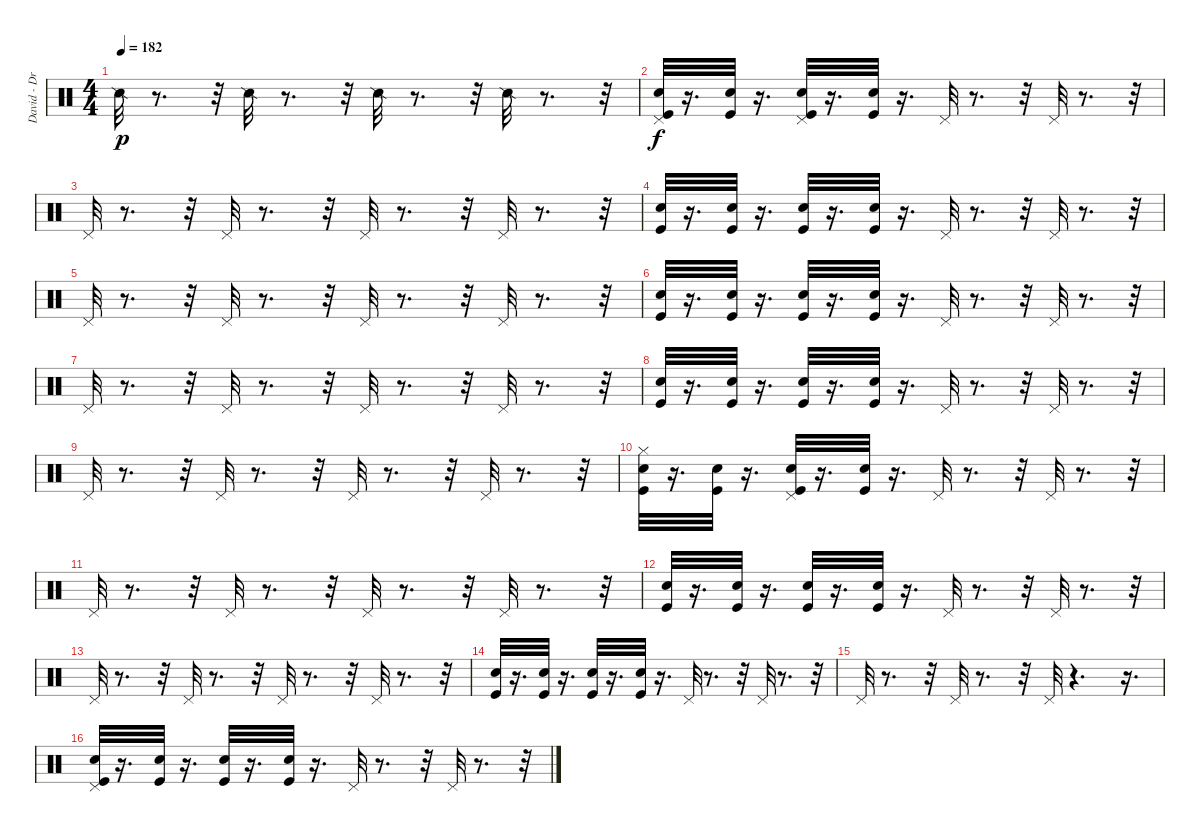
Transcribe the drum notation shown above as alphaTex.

\track ("David - Drums" "David - Dr") {instrument percussion}
\staff {score}
\articulation defaults
\ts (4 4)
\tempo 182
\clef neutral
\ks c "Snare (side stick) 2".32{dy p}
r.8{d} r.32 "Snare (side stick) 2".32 r.8{d} r.32 "Snare (side stick) 2".32 r.8{d} r.32 "Snare (side stick) 2".32 r.8{d} r.32 |
("Pedal Hi-Hat (hit)" "Snare (hit) 2" "Kick (hit)").32{dy f} r.16{d} ("Kick (hit)" "Snare (hit) 2").32 r.16{d} ("Pedal Hi-Hat (hit)" "Snare (hit) 2" "Kick (hit)").32 r.16{d} ("Kick (hit)" "Snare (hit) 2").32 r.16{d} "Pedal Hi-Hat (hit)".32 r.8{d} r.32 "Pedal Hi-Hat (hit)".32 r.8{d} r.32 |
"Pedal Hi-Hat (hit)".32 r.8{d} r.32 "Pedal Hi-Hat (hit)".32 r.8{d} r.32 "Pedal Hi-Hat (hit)".32 r.8{d} r.32 "Pedal Hi-Hat (hit)".32 r.8{d} r.32 |
("Kick (hit)" "Snare (hit) 2").32 r.16{d} ("Kick (hit)" "Snare (hit) 2").32 r.16{d} ("Kick (hit)" "Snare (hit) 2").32 r.16{d} ("Kick (hit)" "Snare (hit) 2").32 r.16{d} "Pedal Hi-Hat (hit)".32 r.8{d} r.32 "Pedal Hi-Hat (hit)".32 r.8{d} r.32 |
"Pedal Hi-Hat (hit)".32 r.8{d} r.32 "Pedal Hi-Hat (hit)".32 r.8{d} r.32 "Pedal Hi-Hat (hit)".32 r.8{d} r.32 "Pedal Hi-Hat (hit)".32 r.8{d} r.32 |
("Kick (hit)" "Snare (hit) 2").32 r.16{d} ("Snare (hit) 2" "Kick (hit)").32 r.16{d} ("Kick (hit)" "Snare (hit) 2").32 r.16{d} ("Snare (hit) 2" "Kick (hit)").32 r.16{d} "Pedal Hi-Hat (hit)".32 r.8{d} r.32 "Pedal Hi-Hat (hit)".32 r.8{d} r.32 |
"Pedal Hi-Hat (hit)".32 r.8{d} r.32 "Pedal Hi-Hat (hit)".32 r.8{d} r.32 "Pedal Hi-Hat (hit)".32 r.8{d} r.32 "Pedal Hi-Hat (hit)".32 r.8{d} r.32 |
("Kick (hit)" "Snare (hit) 2").32 r.16{d} ("Kick (hit)" "Snare (hit) 2").32 r.16{d} ("Snare (hit) 2" "Kick (hit)").32 r.16{d} ("Snare (hit) 2" "Kick (hit)").32 r.16{d} "Pedal Hi-Hat (hit)".32 r.8{d} r.32 "Pedal Hi-Hat (hit)".32 r.8{d} r.32 |
"Pedal Hi-Hat (hit)".32 r.8{d} r.32 "Pedal Hi-Hat (hit)".32 r.8{d} r.32 "Pedal Hi-Hat (hit)".32 r.8{d} r.32 "Pedal Hi-Hat (hit)".32 r.8{d} r.32 |
("Hi-Hat (closed)" "Snare (hit) 2" "Kick (hit)").32 r.16{d} ("Kick (hit)" "Snare (hit) 2").32 r.16{d} ("Pedal Hi-Hat (hit)" "Snare (hit) 2" "Kick (hit)").32 r.16{d} ("Kick (hit)" "Snare (hit) 2").32 r.16{d} "Pedal Hi-Hat (hit)".32 r.8{d} r.32 "Pedal Hi-Hat (hit)".32 r.8{d} r.32 |
"Pedal Hi-Hat (hit)".32 r.8{d} r.32 "Pedal Hi-Hat (hit)".32 r.8{d} r.32 "Pedal Hi-Hat (hit)".32 r.8{d} r.32 "Pedal Hi-Hat (hit)".32 r.8{d} r.32 |
("Kick (hit)" "Snare (hit) 2").32 r.16{d} ("Kick (hit)" "Snare (hit) 2").32 r.16{d} ("Kick (hit)" "Snare (hit) 2").32 r.16{d} ("Kick (hit)" "Snare (hit) 2").32 r.16{d} "Pedal Hi-Hat (hit)".32 r.8{d} r.32 "Pedal Hi-Hat (hit)".32 r.8{d} r.32 |
"Pedal Hi-Hat (hit)".32 r.8{d} r.32 "Pedal Hi-Hat (hit)".32 r.8{d} r.32 "Pedal Hi-Hat (hit)".32 r.8{d} r.32 "Pedal Hi-Hat (hit)".32 r.8{d} r.32 |
("Kick (hit)" "Snare (hit) 2").32 r.16{d} ("Snare (hit) 2" "Kick (hit)").32 r.16{d} ("Kick (hit)" "Snare (hit) 2").32 r.16{d} ("Snare (hit) 2" "Kick (hit)").32 r.16{d} "Pedal Hi-Hat (hit)".32 r.8{d} r.32 "Pedal Hi-Hat (hit)".32 r.8{d} r.32 |
"Pedal Hi-Hat (hit)".32 r.8{d} r.32 "Pedal Hi-Hat (hit)".32 r.8{d} r.32 "Pedal Hi-Hat (hit)".32 r.4{d} r.16{d} |
("Kick (hit)" "Snare (hit) 2" "Pedal Hi-Hat (hit)").32 r.16{d} ("Kick (hit)" "Snare (hit) 2").32 r.16{d} ("Snare (hit) 2" "Kick (hit)").32 r.16{d} ("Snare (hit) 2" "Kick (hit)").32 r.16{d} "Pedal Hi-Hat (hit)".32 r.8{d} r.32 "Pedal Hi-Hat (hit)".32 r.8{d} r.32
